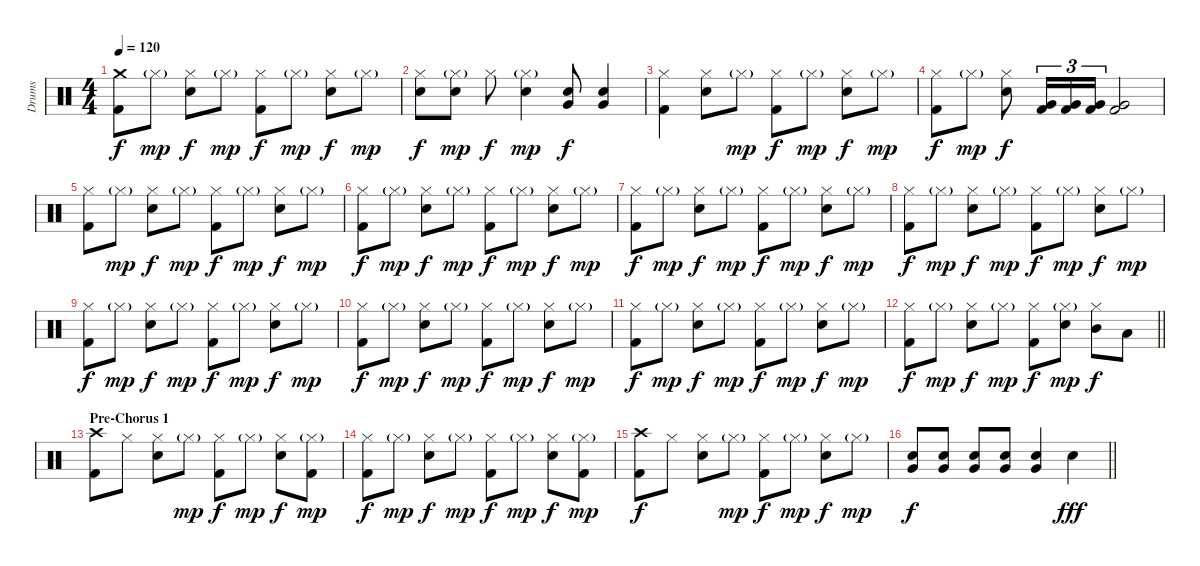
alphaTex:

\track ("Drums" "Drums") {instrument percussion}
\staff {score}
\articulation defaults
\ts (4 4)
\tempo 120
\clef neutral
\ks c
("Crash medium (hit)" "Kick (hit) 2").8{dy f} "Hi-Hat (closed)"{g}.8{dy mp} ("Hi-Hat (closed)" "Electric Snare (hit)").8{dy f} "Hi-Hat (closed)"{g}.8{dy mp} ("Hi-Hat (closed)" "Kick (hit) 2").8{dy f} "Hi-Hat (closed)"{g}.8{dy mp} ("Hi-Hat (closed)" "Electric Snare (hit)").8{dy f} "Hi-Hat (closed)"{g}.8{dy mp} |
("Hi-Hat (closed)" "Electric Snare (hit)").8{dy f} ("Hi-Hat (closed)"{g} "Electric Snare (hit)").8{dy mp} "Hi-Hat (closed)".8{dy f} ("Hi-Hat (closed)"{g} "Electric Snare (hit)").4{dy mp} ("Very Low Tom (hit)" "Electric Snare (hit)").8{dy f} ("Very Low Tom (hit)" "Electric Snare (hit)").4 |
("Hi-Hat (closed)" "Kick (hit) 2").4 ("Hi-Hat (closed)" "Electric Snare (hit)").8 "Hi-Hat (closed)"{g}.8{dy mp} ("Hi-Hat (closed)" "Kick (hit) 2").8{dy f} "Hi-Hat (closed)"{g}.8{dy mp} ("Hi-Hat (closed)" "Electric Snare (hit)").8{dy f} "Hi-Hat (closed)"{g}.8{dy mp} |
("Hi-Hat (closed)" "Kick (hit) 2").8{dy f} "Hi-Hat (closed)"{g}.8{dy mp} ("Hi-Hat (closed)" "Electric Snare (hit)").8{dy f} ("Very Low Tom (hit)" "Kick (hit) 2").16{tu (3 2)} ("Very Low Tom (hit)" "Kick (hit) 2").16{tu (3 2)} ("Very Low Tom (hit)" "Kick (hit) 2").16{tu (3 2)} ("Very Low Tom (hit)" "Kick (hit) 2").2 |
("Hi-Hat (closed)" "Kick (hit) 2").8 "Hi-Hat (closed)"{g}.8{dy mp} ("Hi-Hat (closed)" "Electric Snare (hit)").8{dy f} "Hi-Hat (closed)"{g}.8{dy mp} ("Hi-Hat (closed)" "Kick (hit) 2").8{dy f} "Hi-Hat (closed)"{g}.8{dy mp} ("Hi-Hat (closed)" "Electric Snare (hit)").8{dy f} "Hi-Hat (closed)"{g}.8{dy mp} |
("Hi-Hat (closed)" "Kick (hit) 2").8{dy f} "Hi-Hat (closed)"{g}.8{dy mp} ("Hi-Hat (closed)" "Electric Snare (hit)").8{dy f} "Hi-Hat (closed)"{g}.8{dy mp} ("Hi-Hat (closed)" "Kick (hit) 2").8{dy f} "Hi-Hat (closed)"{g}.8{dy mp} ("Hi-Hat (closed)" "Electric Snare (hit)").8{dy f} "Hi-Hat (closed)"{g}.8{dy mp} |
("Hi-Hat (closed)" "Kick (hit) 2").8{dy f} "Hi-Hat (closed)"{g}.8{dy mp} ("Hi-Hat (closed)" "Electric Snare (hit)").8{dy f} "Hi-Hat (closed)"{g}.8{dy mp} ("Hi-Hat (closed)" "Kick (hit) 2").8{dy f} "Hi-Hat (closed)"{g}.8{dy mp} ("Hi-Hat (closed)" "Electric Snare (hit)").8{dy f} "Hi-Hat (closed)"{g}.8{dy mp} |
("Hi-Hat (closed)" "Kick (hit) 2").8{dy f} "Hi-Hat (closed)"{g}.8{dy mp} ("Hi-Hat (closed)" "Electric Snare (hit)").8{dy f} "Hi-Hat (closed)"{g}.8{dy mp} ("Hi-Hat (closed)" "Kick (hit) 2").8{dy f} "Hi-Hat (closed)"{g}.8{dy mp} ("Hi-Hat (closed)" "Electric Snare (hit)").8{dy f} "Hi-Hat (closed)"{g}.8{dy mp} |
("Hi-Hat (closed)" "Kick (hit) 2").8{dy f} "Hi-Hat (closed)"{g}.8{dy mp} ("Hi-Hat (closed)" "Electric Snare (hit)").8{dy f} "Hi-Hat (closed)"{g}.8{dy mp} ("Hi-Hat (closed)" "Kick (hit) 2").8{dy f} "Hi-Hat (closed)"{g}.8{dy mp} ("Hi-Hat (closed)" "Electric Snare (hit)").8{dy f} "Hi-Hat (closed)"{g}.8{dy mp} |
("Hi-Hat (closed)" "Kick (hit) 2").8{dy f} "Hi-Hat (closed)"{g}.8{dy mp} ("Hi-Hat (closed)" "Electric Snare (hit)").8{dy f} "Hi-Hat (closed)"{g}.8{dy mp} ("Hi-Hat (closed)" "Kick (hit) 2").8{dy f} "Hi-Hat (closed)"{g}.8{dy mp} ("Hi-Hat (closed)" "Electric Snare (hit)").8{dy f} "Hi-Hat (closed)"{g}.8{dy mp} |
("Hi-Hat (closed)" "Kick (hit) 2").8{dy f} "Hi-Hat (closed)"{g}.8{dy mp} ("Hi-Hat (closed)" "Electric Snare (hit)").8{dy f} "Hi-Hat (closed)"{g}.8{dy mp} ("Hi-Hat (closed)" "Kick (hit) 2").8{dy f} "Hi-Hat (closed)"{g}.8{dy mp} ("Hi-Hat (closed)" "Electric Snare (hit)").8{dy f} "Hi-Hat (closed)"{g}.8{dy mp} |
\barLineRight lightlight
("Hi-Hat (closed)" "Kick (hit) 2").8{dy f} "Hi-Hat (closed)"{g}.8{dy mp} ("Hi-Hat (closed)" "Electric Snare (hit)").8{dy f} "Hi-Hat (closed)"{g}.8{dy mp} ("Hi-Hat (closed)" "Kick (hit) 2").8{dy f} ("Hi-Hat (closed)"{g} "Electric Snare (hit)").8{dy mp} ("Mid Tom (hit)" "Hi-Hat (closed)").8{dy f} "Low Tom (hit)".8 |
\section ("" "Pre-Chorus 1")
("Crash high (hit)" "Kick (hit) 2").8 "Hi-Hat (closed)".8 ("Hi-Hat (closed)" "Electric Snare (hit)").8 "Hi-Hat (closed)"{g}.8{dy mp} ("Hi-Hat (closed)" "Kick (hit) 2").8{dy f} "Hi-Hat (closed)"{g}.8{dy mp} ("Hi-Hat (closed)" "Electric Snare (hit)").8{dy f} ("Hi-Hat (closed)"{g} "Kick (hit) 2").8{dy mp} |
("Hi-Hat (closed)" "Kick (hit) 2").8{dy f} "Hi-Hat (closed)"{g}.8{dy mp} ("Hi-Hat (closed)" "Electric Snare (hit)").8{dy f} "Hi-Hat (closed)"{g}.8{dy mp} ("Hi-Hat (closed)" "Kick (hit) 2").8{dy f} "Hi-Hat (closed)"{g}.8{dy mp} ("Hi-Hat (closed)" "Electric Snare (hit)").8{dy f} ("Hi-Hat (closed)"{g} "Kick (hit) 2").8{dy mp} |
("Crash high (hit)" "Kick (hit) 2").8{dy f} "Hi-Hat (closed)".8 ("Hi-Hat (closed)" "Electric Snare (hit)").8 "Hi-Hat (closed)"{g}.8{dy mp} ("Hi-Hat (closed)" "Kick (hit) 2").8{dy f} "Hi-Hat (closed)"{g}.8{dy mp} ("Hi-Hat (closed)" "Electric Snare (hit)").8{dy f} "Hi-Hat (closed)"{g}.8{dy mp} |
\barLineRight lightlight
("Very Low Tom (hit)" "Electric Snare (hit)").8{dy f} ("Very Low Tom (hit)" "Electric Snare (hit)").8 ("Very Low Tom (hit)" "Electric Snare (hit)").8 ("Very Low Tom (hit)" "Electric Snare (hit)").8 ("Very Low Tom (hit)" "Electric Snare (hit)").4 "Electric Snare (hit)".4{dy fff}
